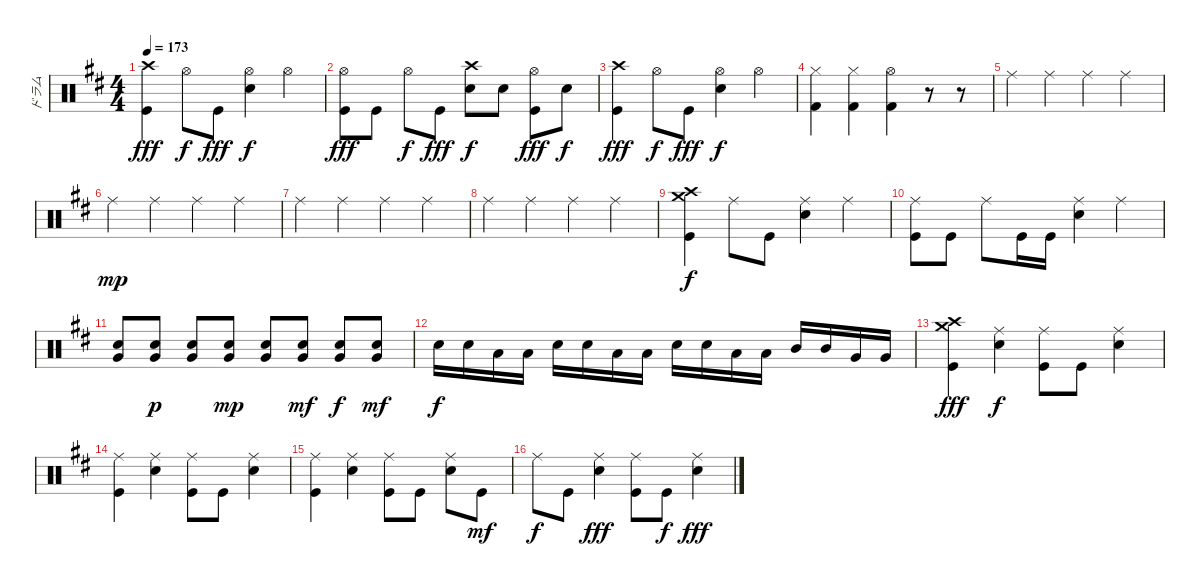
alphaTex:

\track ("ドラム" "ドラム") {mute instrument percussion}
\staff {score}
\articulation defaults
\ts (4 4)
\tempo 173
\clef neutral
\ks d
("Crash high (hit)" "Kick (hit)").4{dy fff} "Hi-Hat (open)".8{dy f} "Kick (hit)".8{dy fff} ("Hi-Hat (open)" "Snare (hit) 2").4{dy f} "Hi-Hat (open)".4 |
("Hi-Hat (open)" "Kick (hit)").8{dy fff} "Kick (hit)".8 "Hi-Hat (open)".8{dy f} "Kick (hit)".8{dy fff} ("Crash high (hit)" "Snare (hit) 2").8{dy f} "Snare (hit) 2".8 ("Hi-Hat (open)" "Kick (hit)").8{dy fff} "Snare (hit) 2".8{dy f} |
("Crash high (hit)" "Kick (hit)").4{dy fff} "Hi-Hat (open)".8{dy f} "Kick (hit)".8{dy fff} ("Hi-Hat (open)" "Snare (hit) 2").4{dy f} "Hi-Hat (open)".4 |
("Kick (hit) 2" "Hi-Hat (closed)").4 ("Kick (hit) 2" "Hi-Hat (closed)").4 ("Kick (hit) 2" "Hi-Hat (open)").4 r.8 r.8 |
"Ride (middle)".4 "Ride (middle)".4 "Ride (middle)".4 "Ride (middle)".4 |
"Ride (middle)".4{dy mp} "Ride (middle)".4 "Ride (middle)".4 "Ride (middle)".4 |
"Ride (middle)".4 "Ride (middle)".4 "Ride (middle)".4 "Ride (middle)".4 |
"Ride (middle)".4 "Ride (middle)".4 "Ride (middle)".4 "Ride (middle)".4 |
("Crash high (hit)" "Crash medium (hit)" "Kick (hit)").4{dy f} "Ride (middle)".8 "Kick (hit)".8 ("Ride (middle)" "Snare (hit) 2").4 "Ride (middle)".4 |
("Ride (middle)" "Kick (hit)").8 "Kick (hit)".8 "Ride (middle)".8 "Kick (hit)".16 "Kick (hit)".16 ("Ride (middle)" "Snare (hit) 2").4 "Ride (middle)".4 |
("Very Low Tom (hit)" "Snare (hit) 2").8 ("Very Low Tom (hit)" "Snare (hit) 2").8{dy p} ("Very Low Tom (hit)" "Snare (hit) 2").8 ("Very Low Tom (hit)" "Snare (hit) 2").8{dy mp} ("Very Low Tom (hit)" "Snare (hit) 2").8 ("Very Low Tom (hit)" "Snare (hit) 2").8{dy mf} ("Very Low Tom (hit)" "Snare (hit) 2").8{dy f} ("Very Low Tom (hit)" "Snare (hit) 2").8{dy mf} |
"Snare (hit) 2".16{dy f} "Snare (hit) 2".16 "Low Tom (hit)".16 "Low Tom (hit)".16 "Snare (hit) 2".16 "Snare (hit) 2".16 "Low Tom (hit)".16 "Low Tom (hit)".16 "Snare (hit) 2".16 "Snare (hit) 2".16 "Low Tom (hit)".16 "Low Tom (hit)".16 "Mid Tom (hit)".16 "Mid Tom (hit)".16 "Very Low Tom (hit)".16 "Very Low Tom (hit)".16 |
("Crash medium (hit)" "Crash high (hit)" "Kick (hit)").4{dy fff} ("Ride (middle)" "Snare (hit) 2").4{dy f} ("Ride (middle)" "Kick (hit)").8 "Kick (hit)".8 ("Ride (middle)" "Snare (hit) 2").4 |
("Ride (middle)" "Kick (hit)").4 ("Ride (middle)" "Snare (hit) 2").4 ("Ride (middle)" "Kick (hit)").8 "Kick (hit)".8 ("Ride (middle)" "Snare (hit) 2").4 |
("Ride (middle)" "Kick (hit)").4 ("Ride (middle)" "Snare (hit) 2").4 ("Ride (middle)" "Kick (hit)").8 "Kick (hit)".8 ("Ride (middle)" "Snare (hit) 2").8 "Kick (hit)".8{dy mf} |
"Ride (middle)".8{dy f} "Kick (hit)".8 ("Ride (middle)" "Snare (hit) 2").4{dy fff} ("Ride (middle)" "Kick (hit)").8 "Kick (hit)".8{dy f} ("Ride (middle)" "Snare (hit) 2").4{dy fff}
